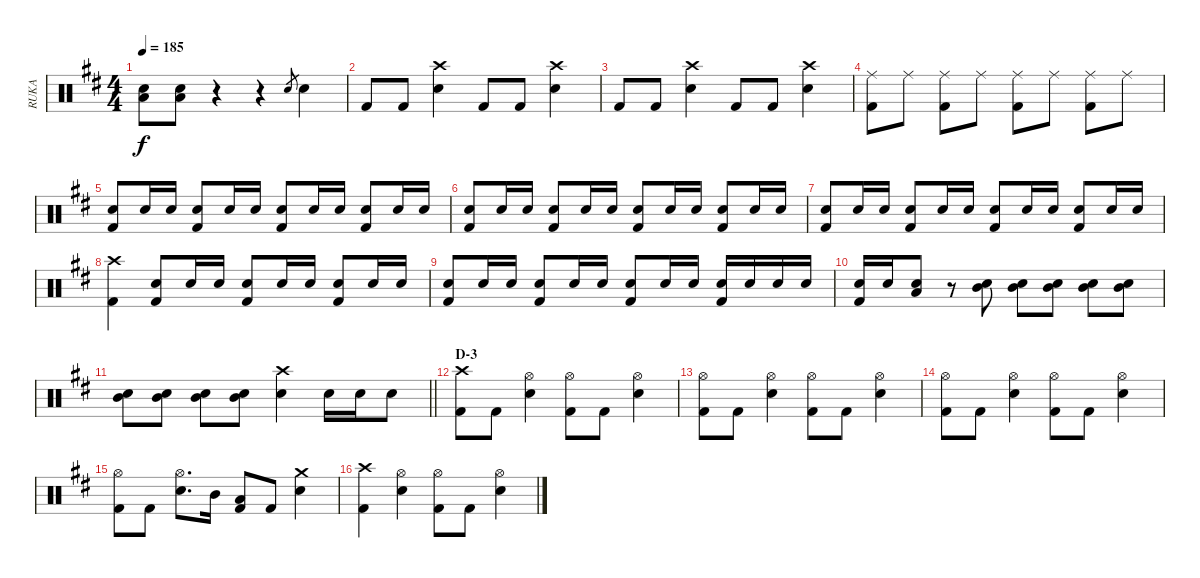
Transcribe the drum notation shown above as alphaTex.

\track ("RUKA" "RUKA") {instrument percussion}
\staff {score}
\articulation defaults
\ts (4 4)
\tempo 185
\clef neutral
\ks d
("Low Tom (hit)" "Snare (hit) 2").8{dy f} ("Low Tom (hit)" "Snare (hit) 2").8 r.4 r.4 "Snare (hit) 2".8{gr} "Snare (hit) 2".4 |
"Kick (hit) 2".8 "Kick (hit) 2".8 ("Crash high (hit)" "Snare (hit) 2").4 "Kick (hit) 2".8 "Kick (hit) 2".8 ("Crash high (hit)" "Snare (hit) 2").4 |
"Kick (hit) 2".8 "Kick (hit) 2".8 ("Crash high (hit)" "Snare (hit) 2").4 "Kick (hit) 2".8 "Kick (hit) 2".8 ("Crash high (hit)" "Snare (hit) 2").4 |
("Ride (middle)" "Kick (hit) 2").8 "Ride (middle)".8 ("Ride (middle)" "Kick (hit) 2").8 "Ride (middle)".8 ("Ride (middle)" "Kick (hit) 2").8 "Ride (middle)".8 ("Ride (middle)" "Kick (hit) 2").8 "Ride (middle)".8 |
("Snare (hit) 2" "Kick (hit) 2").8 "Snare (hit) 2".16 "Snare (hit) 2".16 ("Snare (hit) 2" "Kick (hit) 2").8 "Snare (hit) 2".16 "Snare (hit) 2".16 ("Snare (hit) 2" "Kick (hit) 2").8 "Snare (hit) 2".16 "Snare (hit) 2".16 ("Snare (hit) 2" "Kick (hit) 2").8 "Snare (hit) 2".16 "Snare (hit) 2".16 |
("Snare (hit) 2" "Kick (hit) 2").8 "Snare (hit) 2".16 "Snare (hit) 2".16 ("Snare (hit) 2" "Kick (hit) 2").8 "Snare (hit) 2".16 "Snare (hit) 2".16 ("Snare (hit) 2" "Kick (hit) 2").8 "Snare (hit) 2".16 "Snare (hit) 2".16 ("Snare (hit) 2" "Kick (hit) 2").8 "Snare (hit) 2".16 "Snare (hit) 2".16 |
("Snare (hit) 2" "Kick (hit) 2").8 "Snare (hit) 2".16 "Snare (hit) 2".16 ("Snare (hit) 2" "Kick (hit) 2").8 "Snare (hit) 2".16 "Snare (hit) 2".16 ("Snare (hit) 2" "Kick (hit) 2").8 "Snare (hit) 2".16 "Snare (hit) 2".16 ("Snare (hit) 2" "Kick (hit) 2").8 "Snare (hit) 2".16 "Snare (hit) 2".16 |
("Crash high (hit)" "Kick (hit) 2").4 ("Snare (hit) 2" "Kick (hit) 2").8 "Snare (hit) 2".16 "Snare (hit) 2".16 ("Snare (hit) 2" "Kick (hit) 2").8 "Snare (hit) 2".16 "Snare (hit) 2".16 ("Snare (hit) 2" "Kick (hit) 2").8 "Snare (hit) 2".16 "Snare (hit) 2".16 |
("Snare (hit) 2" "Kick (hit) 2").8 "Snare (hit) 2".16 "Snare (hit) 2".16 ("Snare (hit) 2" "Kick (hit) 2").8 "Snare (hit) 2".16 "Snare (hit) 2".16 ("Snare (hit) 2" "Kick (hit) 2").8 "Snare (hit) 2".16 "Snare (hit) 2".16 ("Snare (hit) 2" "Kick (hit) 2").16 "Snare (hit) 2".16 "Snare (hit) 2".16 "Snare (hit) 2".16 |
("Snare (hit) 2" "Kick (hit) 2").16 "Snare (hit) 2".16 ("Low Tom (hit)" "Snare (hit) 2").8 r.8 ("Mid Tom (hit)" "Snare (hit) 2").8 ("Mid Tom (hit)" "Snare (hit) 2").8 ("Mid Tom (hit)" "Snare (hit) 2").8 ("Mid Tom (hit)" "Snare (hit) 2").8 ("Mid Tom (hit)" "Snare (hit) 2").8 |
\barLineRight lightlight
("Mid Tom (hit)" "Snare (hit) 2").8 ("Mid Tom (hit)" "Snare (hit) 2").8 ("Mid Tom (hit)" "Snare (hit) 2").8 ("Mid Tom (hit)" "Snare (hit) 2").8 ("Crash high (hit)" "Snare (hit) 2").4 "Snare (hit) 2".16 "Snare (hit) 2".16 "Snare (hit) 2".8 |
\section ("" "D-3")
("Crash high (hit)" "Kick (hit) 2").8 "Kick (hit) 2".8 ("Hi-Hat (open)" "Snare (hit) 2").4 ("Hi-Hat (open)" "Kick (hit) 2").8 "Kick (hit) 2".8 ("Hi-Hat (open)" "Snare (hit) 2").4 |
("Hi-Hat (open)" "Kick (hit) 2").8 "Kick (hit) 2".8 ("Hi-Hat (open)" "Snare (hit) 2").4 ("Hi-Hat (open)" "Kick (hit) 2").8 "Kick (hit) 2".8 ("Hi-Hat (open)" "Snare (hit) 2").4 |
("Hi-Hat (open)" "Kick (hit) 2").8 "Kick (hit) 2".8 ("Hi-Hat (open)" "Snare (hit) 2").4 ("Hi-Hat (open)" "Kick (hit) 2").8 "Kick (hit) 2".8 ("Hi-Hat (open)" "Snare (hit) 2").4 |
("Hi-Hat (open)" "Kick (hit) 2").8 "Kick (hit) 2".8 ("Hi-Hat (open)" "Snare (hit) 2").8{d} "Mid Tom (hit)".16 ("Low Tom (hit)" "Kick (hit) 2").8 "Kick (hit) 2".8 ("Crash medium (hit)" "Snare (hit) 2").4 |
("Crash high (hit)" "Kick (hit) 2").4 ("Hi-Hat (open)" "Snare (hit) 2").4 ("Hi-Hat (open)" "Kick (hit) 2").8 "Kick (hit) 2".8 ("Hi-Hat (open)" "Snare (hit) 2").4
